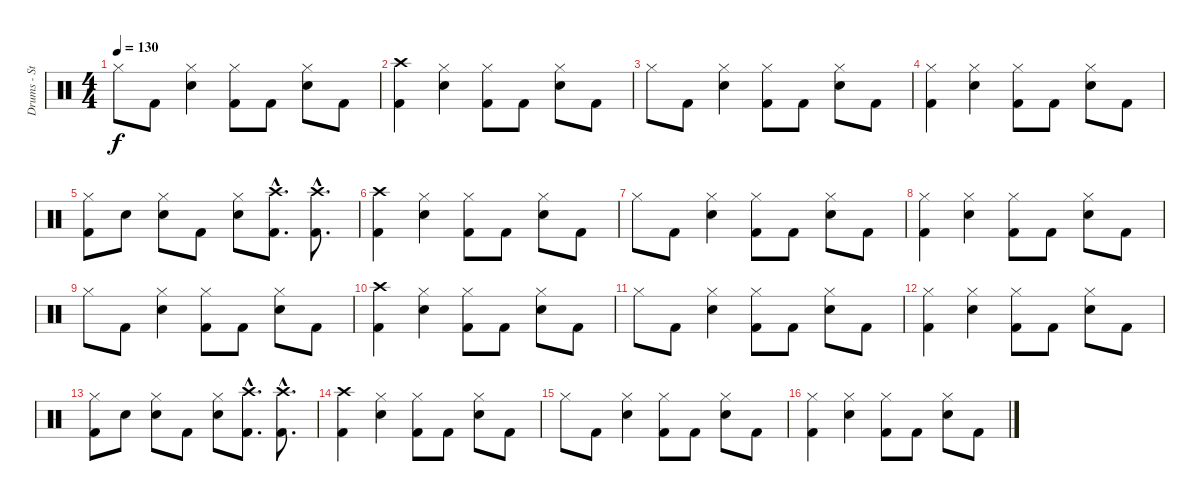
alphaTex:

\track ("Drums - Steven" "Drums - St") {instrument percussion}
\staff {score}
\articulation defaults
\ts (4 4)
\tempo 130
\clef neutral
\ks c "Hi-Hat (closed)".8{dy f} "Kick (hit) 2".8
("Electric Snare (hit)" "Hi-Hat (closed)").4 ("Kick (hit) 2" "Hi-Hat (closed)").8 "Kick (hit) 2".8 ("Electric Snare (hit)" "Hi-Hat (closed)").8 "Kick (hit) 2".8 |
("Kick (hit) 2" "Crash high (hit)").4 ("Electric Snare (hit)" "Hi-Hat (closed)").4 ("Kick (hit) 2" "Hi-Hat (closed)").8 "Kick (hit) 2".8 ("Electric Snare (hit)" "Hi-Hat (closed)").8 "Kick (hit) 2".8 |
"Hi-Hat (closed)".8 "Kick (hit) 2".8 ("Electric Snare (hit)" "Hi-Hat (closed)").4 ("Kick (hit) 2" "Hi-Hat (closed)").8 "Kick (hit) 2".8 ("Electric Snare (hit)" "Hi-Hat (closed)").8 "Kick (hit) 2".8 |
("Kick (hit) 2" "Hi-Hat (closed)").4 ("Electric Snare (hit)" "Hi-Hat (closed)").4 ("Kick (hit) 2" "Hi-Hat (closed)").8 "Kick (hit) 2".8 ("Electric Snare (hit)" "Hi-Hat (closed)").8 "Kick (hit) 2".8 |
("Kick (hit) 2" "Hi-Hat (closed)").8 "Electric Snare (hit)".8 ("Electric Snare (hit)" "Hi-Hat (closed)").8 "Kick (hit) 2".8 ("Electric Snare (hit)" "Hi-Hat (closed)").8 ("Kick (hit) 2"{hac} "Crash high (hit)"{hac}).8{d} ("Kick (hit) 2"{hac} "Crash high (hit)"{hac}).8{d} |
("Kick (hit) 2" "Crash high (hit)").4 ("Electric Snare (hit)" "Hi-Hat (closed)").4 ("Kick (hit) 2" "Hi-Hat (closed)").8 "Kick (hit) 2".8 ("Electric Snare (hit)" "Hi-Hat (closed)").8 "Kick (hit) 2".8 |
"Hi-Hat (closed)".8 "Kick (hit) 2".8 ("Electric Snare (hit)" "Hi-Hat (closed)").4 ("Kick (hit) 2" "Hi-Hat (closed)").8 "Kick (hit) 2".8 ("Electric Snare (hit)" "Hi-Hat (closed)").8 "Kick (hit) 2".8 |
("Kick (hit) 2" "Hi-Hat (closed)").4 ("Electric Snare (hit)" "Hi-Hat (closed)").4 ("Kick (hit) 2" "Hi-Hat (closed)").8 "Kick (hit) 2".8 ("Electric Snare (hit)" "Hi-Hat (closed)").8 "Kick (hit) 2".8 |
"Hi-Hat (closed)".8 "Kick (hit) 2".8 ("Electric Snare (hit)" "Hi-Hat (closed)").4 ("Kick (hit) 2" "Hi-Hat (closed)").8 "Kick (hit) 2".8 ("Electric Snare (hit)" "Hi-Hat (closed)").8 "Kick (hit) 2".8 |
("Kick (hit) 2" "Crash high (hit)").4 ("Electric Snare (hit)" "Hi-Hat (closed)").4 ("Kick (hit) 2" "Hi-Hat (closed)").8 "Kick (hit) 2".8 ("Electric Snare (hit)" "Hi-Hat (closed)").8 "Kick (hit) 2".8 |
"Hi-Hat (closed)".8 "Kick (hit) 2".8 ("Electric Snare (hit)" "Hi-Hat (closed)").4 ("Kick (hit) 2" "Hi-Hat (closed)").8 "Kick (hit) 2".8 ("Electric Snare (hit)" "Hi-Hat (closed)").8 "Kick (hit) 2".8 |
("Kick (hit) 2" "Hi-Hat (closed)").4 ("Electric Snare (hit)" "Hi-Hat (closed)").4 ("Kick (hit) 2" "Hi-Hat (closed)").8 "Kick (hit) 2".8 ("Electric Snare (hit)" "Hi-Hat (closed)").8 "Kick (hit) 2".8 |
("Kick (hit) 2" "Hi-Hat (closed)").8 "Electric Snare (hit)".8 ("Electric Snare (hit)" "Hi-Hat (closed)").8 "Kick (hit) 2".8 ("Electric Snare (hit)" "Hi-Hat (closed)").8 ("Kick (hit) 2"{hac} "Crash high (hit)"{hac}).8{d} ("Kick (hit) 2"{hac} "Crash high (hit)"{hac}).8{d} |
("Kick (hit) 2" "Crash high (hit)").4 ("Electric Snare (hit)" "Hi-Hat (closed)").4 ("Kick (hit) 2" "Hi-Hat (closed)").8 "Kick (hit) 2".8 ("Electric Snare (hit)" "Hi-Hat (closed)").8 "Kick (hit) 2".8 |
"Hi-Hat (closed)".8 "Kick (hit) 2".8 ("Electric Snare (hit)" "Hi-Hat (closed)").4 ("Kick (hit) 2" "Hi-Hat (closed)").8 "Kick (hit) 2".8 ("Electric Snare (hit)" "Hi-Hat (closed)").8 "Kick (hit) 2".8 |
("Kick (hit) 2" "Hi-Hat (closed)").4 ("Electric Snare (hit)" "Hi-Hat (closed)").4 ("Kick (hit) 2" "Hi-Hat (closed)").8 "Kick (hit) 2".8 ("Electric Snare (hit)" "Hi-Hat (closed)").8 "Kick (hit) 2".8
